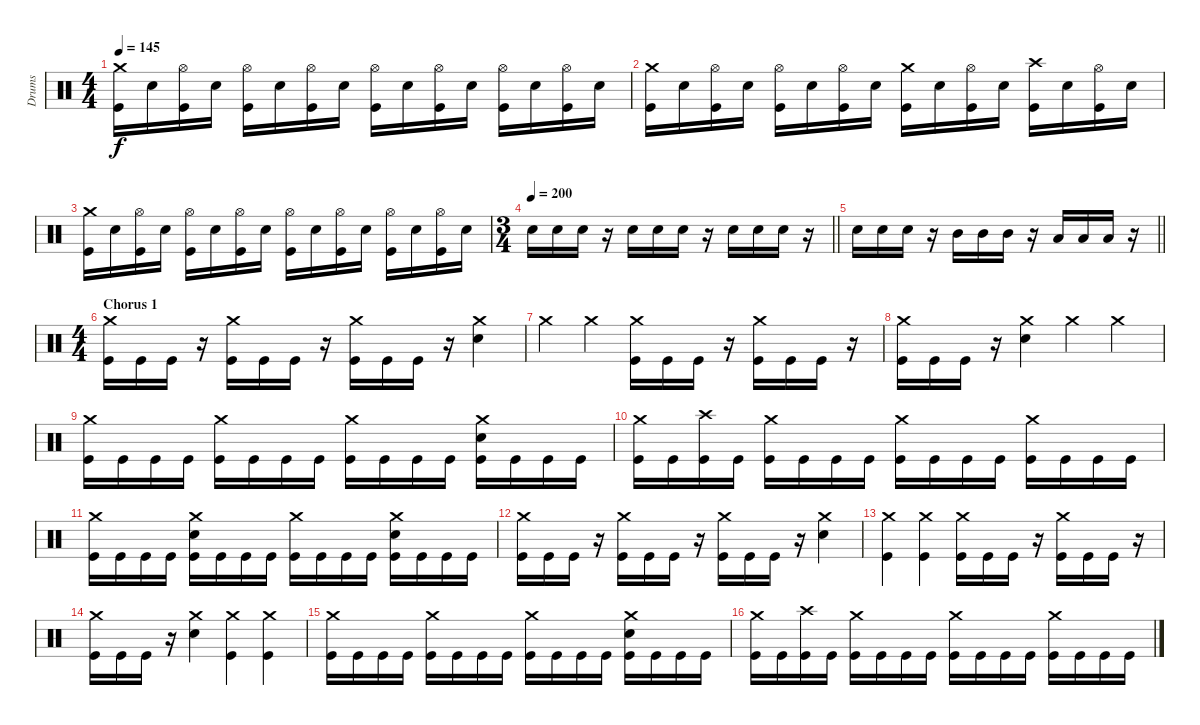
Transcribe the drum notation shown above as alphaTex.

\track ("Drums" "Drums") {instrument percussion}
\staff {score}
\articulation defaults
\ts (4 4)
\tempo 145
\clef neutral
\ks c
("Crash medium (hit)" "Kick (hit)").16{dy f} "Snare (hit) 2".16 ("Hi-Hat (open)" "Kick (hit)").16 "Snare (hit) 2".16 ("Hi-Hat (open)" "Kick (hit)").16 "Snare (hit) 2".16 ("Hi-Hat (open)" "Kick (hit)").16 "Snare (hit) 2".16 ("Hi-Hat (open)" "Kick (hit)").16 "Snare (hit) 2".16 ("Hi-Hat (open)" "Kick (hit)").16 "Snare (hit) 2".16 ("Hi-Hat (open)" "Kick (hit)").16 "Snare (hit) 2".16 ("Hi-Hat (open)" "Kick (hit)").16 "Snare (hit) 2".16 |
("Crash medium (hit)" "Kick (hit)").16 "Snare (hit) 2".16 ("Hi-Hat (open)" "Kick (hit)").16 "Snare (hit) 2".16 ("Hi-Hat (open)" "Kick (hit)").16 "Snare (hit) 2".16 ("Hi-Hat (open)" "Kick (hit)").16 "Snare (hit) 2".16 ("Crash medium (hit)" "Kick (hit)").16 "Snare (hit) 2".16 ("Hi-Hat (open)" "Kick (hit)").16 "Snare (hit) 2".16 ("Crash high (hit)" "Kick (hit)").16 "Snare (hit) 2".16 ("Hi-Hat (open)" "Kick (hit)").16 "Snare (hit) 2".16 |
("Crash medium (hit)" "Kick (hit)").16 "Snare (hit) 2".16 ("Hi-Hat (open)" "Kick (hit)").16 "Snare (hit) 2".16 ("Hi-Hat (open)" "Kick (hit)").16 "Snare (hit) 2".16 ("Hi-Hat (open)" "Kick (hit)").16 "Snare (hit) 2".16 ("Hi-Hat (open)" "Kick (hit)").16 "Snare (hit) 2".16 ("Hi-Hat (open)" "Kick (hit)").16 "Snare (hit) 2".16 ("Hi-Hat (open)" "Kick (hit)").16 "Snare (hit) 2".16 ("Hi-Hat (open)" "Kick (hit)").16 "Snare (hit) 2".16 |
\ts (3 4)
\tempo 200
\barLineRight lightlight "Snare (hit) 2".16 "Snare (hit) 2".16 "Snare (hit) 2".16
r.16 "Snare (hit) 2".16 "Snare (hit) 2".16 "Snare (hit) 2".16 r.16 "Snare (hit) 2".16 "Snare (hit) 2".16 "Snare (hit) 2".16 r.16 |
\barLineRight lightlight "Snare (hit) 2".16 "Snare (hit) 2".16 "Snare (hit) 2".16
r.16 "Mid Tom (hit)".16 "Mid Tom (hit)".16 "Mid Tom (hit)".16 r.16 "Low Tom (hit)".16 "Low Tom (hit)".16 "Low Tom (hit)".16 r.16 |
\ts (4 4)
\section ("" "Chorus 1")
("Crash medium (hit)" "Kick (hit)").16 "Kick (hit)".16 "Kick (hit)".16 r.16 ("Crash medium (hit)" "Kick (hit)").16 "Kick (hit)".16 "Kick (hit)".16 r.16 ("Crash medium (hit)" "Kick (hit)").16 "Kick (hit)".16 "Kick (hit)".16 r.16 ("Crash medium (hit)" "Snare (hit) 2").4 |
"Crash medium (hit)".4 "Crash medium (hit)".4 ("Crash medium (hit)" "Kick (hit)").16 "Kick (hit)".16 "Kick (hit)".16 r.16 ("Crash medium (hit)" "Kick (hit)").16 "Kick (hit)".16 "Kick (hit)".16 r.16 |
("Crash medium (hit)" "Kick (hit)").16 "Kick (hit)".16 "Kick (hit)".16 r.16 ("Crash medium (hit)" "Snare (hit) 2").4 "Crash medium (hit)".4 "Crash medium (hit)".4 |
("Crash medium (hit)" "Kick (hit)").16 "Kick (hit)".16 "Kick (hit)".16 "Kick (hit)".16 ("Crash medium (hit)" "Kick (hit)").16 "Kick (hit)".16 "Kick (hit)".16 "Kick (hit)".16 ("Crash medium (hit)" "Kick (hit)").16 "Kick (hit)".16 "Kick (hit)".16 "Kick (hit)".16 ("Crash medium (hit)" "Snare (hit) 2" "Kick (hit)").16 "Kick (hit)".16 "Kick (hit)".16 "Kick (hit)".16 |
("Crash medium (hit)" "Kick (hit)").16 "Kick (hit)".16 ("Crash high (hit)" "Kick (hit)").16 "Kick (hit)".16 ("Crash medium (hit)" "Kick (hit)").16 "Kick (hit)".16 "Kick (hit)".16 "Kick (hit)".16 ("Crash medium (hit)" "Kick (hit)").16 "Kick (hit)".16 "Kick (hit)".16 "Kick (hit)".16 ("Crash medium (hit)" "Kick (hit)").16 "Kick (hit)".16 "Kick (hit)".16 "Kick (hit)".16 |
("Crash medium (hit)" "Kick (hit)").16 "Kick (hit)".16 "Kick (hit)".16 "Kick (hit)".16 ("Crash medium (hit)" "Snare (hit) 2" "Kick (hit)").16 "Kick (hit)".16 "Kick (hit)".16 "Kick (hit)".16 ("Crash medium (hit)" "Kick (hit)").16 "Kick (hit)".16 "Kick (hit)".16 "Kick (hit)".16 ("Crash medium (hit)" "Snare (hit) 2" "Kick (hit)").16 "Kick (hit)".16 "Kick (hit)".16 "Kick (hit)".16 |
("Crash medium (hit)" "Kick (hit)").16 "Kick (hit)".16 "Kick (hit)".16 r.16 ("Crash medium (hit)" "Kick (hit)").16 "Kick (hit)".16 "Kick (hit)".16 r.16 ("Crash medium (hit)" "Kick (hit)").16 "Kick (hit)".16 "Kick (hit)".16 r.16 ("Crash medium (hit)" "Snare (hit) 2").4 |
("Crash medium (hit)" "Kick (hit)").4 ("Crash medium (hit)" "Kick (hit)").4 ("Crash medium (hit)" "Kick (hit)").16 "Kick (hit)".16 "Kick (hit)".16 r.16 ("Crash medium (hit)" "Kick (hit)").16 "Kick (hit)".16 "Kick (hit)".16 r.16 |
("Crash medium (hit)" "Kick (hit)").16 "Kick (hit)".16 "Kick (hit)".16 r.16 ("Crash medium (hit)" "Snare (hit) 2").4 ("Crash medium (hit)" "Kick (hit)").4 ("Crash medium (hit)" "Kick (hit)").4 |
("Crash medium (hit)" "Kick (hit)").16 "Kick (hit)".16 "Kick (hit)".16 "Kick (hit)".16 ("Crash medium (hit)" "Kick (hit)").16 "Kick (hit)".16 "Kick (hit)".16 "Kick (hit)".16 ("Crash medium (hit)" "Kick (hit)").16 "Kick (hit)".16 "Kick (hit)".16 "Kick (hit)".16 ("Crash medium (hit)" "Snare (hit) 2" "Kick (hit)").16 "Kick (hit)".16 "Kick (hit)".16 "Kick (hit)".16 |
("Crash medium (hit)" "Kick (hit)").16 "Kick (hit)".16 ("Crash high (hit)" "Kick (hit)").16 "Kick (hit)".16 ("Crash medium (hit)" "Kick (hit)").16 "Kick (hit)".16 "Kick (hit)".16 "Kick (hit)".16 ("Crash medium (hit)" "Kick (hit)").16 "Kick (hit)".16 "Kick (hit)".16 "Kick (hit)".16 ("Crash medium (hit)" "Kick (hit)").16 "Kick (hit)".16 "Kick (hit)".16 "Kick (hit)".16
